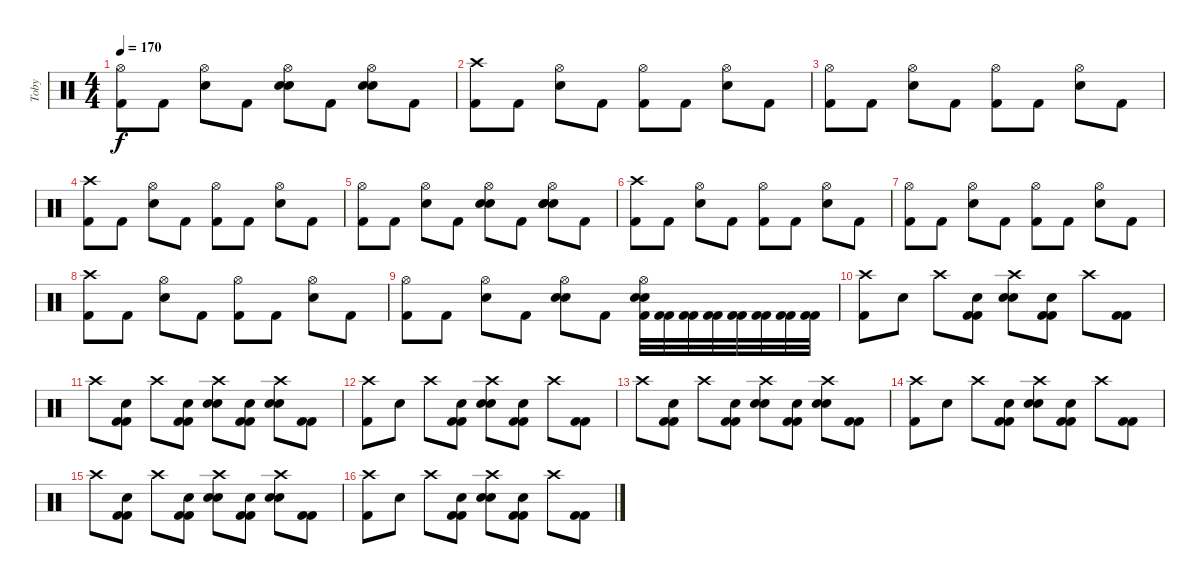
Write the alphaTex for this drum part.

\track ("Toby" "Toby") {instrument percussion}
\staff {score}
\articulation defaults
\ts (4 4)
\tempo 170
\clef neutral
\ks c
("Hi-Hat (open)" "Kick (hit) 2").8{dy f} "Kick (hit) 2".8 ("Hi-Hat (open)" "Electric Snare (hit)").8 "Kick (hit) 2".8 ("Hi-Hat (open)" "Electric Snare (hit)" "Electric Snare (hit)").8 "Kick (hit) 2".8 ("Hi-Hat (open)" "Electric Snare (hit)" "Electric Snare (hit)").8 "Kick (hit) 2".8 |
("Crash high (hit)" "Kick (hit) 2").8 "Kick (hit) 2".8 ("Hi-Hat (open)" "Electric Snare (hit)").8 "Kick (hit) 2".8 ("Hi-Hat (open)" "Kick (hit) 2").8 "Kick (hit) 2".8 ("Hi-Hat (open)" "Electric Snare (hit)").8 "Kick (hit) 2".8 |
("Hi-Hat (open)" "Kick (hit) 2").8 "Kick (hit) 2".8 ("Hi-Hat (open)" "Electric Snare (hit)").8 "Kick (hit) 2".8 ("Hi-Hat (open)" "Kick (hit) 2").8 "Kick (hit) 2".8 ("Hi-Hat (open)" "Electric Snare (hit)").8 "Kick (hit) 2".8 |
("Crash high (hit)" "Kick (hit) 2").8 "Kick (hit) 2".8 ("Hi-Hat (open)" "Electric Snare (hit)").8 "Kick (hit) 2".8 ("Hi-Hat (open)" "Kick (hit) 2").8 "Kick (hit) 2".8 ("Hi-Hat (open)" "Electric Snare (hit)").8 "Kick (hit) 2".8 |
("Hi-Hat (open)" "Kick (hit) 2").8 "Kick (hit) 2".8 ("Hi-Hat (open)" "Electric Snare (hit)").8 "Kick (hit) 2".8 ("Hi-Hat (open)" "Electric Snare (hit)" "Electric Snare (hit)").8 "Kick (hit) 2".8 ("Hi-Hat (open)" "Electric Snare (hit)" "Electric Snare (hit)" "Electric Snare (hit)").8 "Kick (hit) 2".8 |
("Crash high (hit)" "Kick (hit) 2").8 "Kick (hit) 2".8 ("Hi-Hat (open)" "Electric Snare (hit)").8 "Kick (hit) 2".8 ("Hi-Hat (open)" "Kick (hit) 2").8 "Kick (hit) 2".8 ("Hi-Hat (open)" "Electric Snare (hit)").8 "Kick (hit) 2".8 |
("Hi-Hat (open)" "Kick (hit) 2").8 "Kick (hit) 2".8 ("Hi-Hat (open)" "Electric Snare (hit)").8 "Kick (hit) 2".8 ("Hi-Hat (open)" "Kick (hit) 2").8 "Kick (hit) 2".8 ("Hi-Hat (open)" "Electric Snare (hit)").8 "Kick (hit) 2".8 |
("Crash high (hit)" "Kick (hit) 2").8 "Kick (hit) 2".8 ("Hi-Hat (open)" "Electric Snare (hit)").8 "Kick (hit) 2".8 ("Hi-Hat (open)" "Kick (hit) 2").8 "Kick (hit) 2".8 ("Hi-Hat (open)" "Electric Snare (hit)").8 "Kick (hit) 2".8 |
("Hi-Hat (open)" "Kick (hit) 2").8 "Kick (hit) 2".8 ("Hi-Hat (open)" "Electric Snare (hit)").8 "Kick (hit) 2".8 ("Hi-Hat (open)" "Electric Snare (hit)" "Electric Snare (hit)").8 "Kick (hit) 2".8 ("Hi-Hat (open)" "Electric Snare (hit)" "Electric Snare (hit)" "Kick (hit) 2").32 ("Kick (hit) 2" "Kick (hit) 2").32 ("Kick (hit) 2" "Kick (hit) 2").32 ("Kick (hit) 2" "Kick (hit) 2").32 ("Kick (hit) 2" "Kick (hit) 2").32 ("Kick (hit) 2" "Kick (hit) 2").32 ("Kick (hit) 2" "Kick (hit) 2").32 ("Kick (hit) 2" "Kick (hit) 2").32 |
("Crash high (hit)" "Kick (hit) 2").8 "Snare (hit)".8 "Crash high (hit)".8 ("Snare (hit)" "Kick (hit) 2" "Kick (hit) 2").8 ("Crash high (hit)" "Electric Snare (hit)" "Electric Snare (hit)").8 ("Snare (hit)" "Kick (hit) 2" "Kick (hit) 2").8 "Crash high (hit)".8 ("Kick (hit) 2" "Kick (hit) 2").8 |
"Crash high (hit)".8 ("Snare (hit)" "Kick (hit) 2" "Kick (hit) 2").8 "Crash high (hit)".8 ("Snare (hit)" "Kick (hit) 2" "Kick (hit) 2").8 ("Crash high (hit)" "Electric Snare (hit)" "Electric Snare (hit)").8 ("Snare (hit)" "Kick (hit) 2" "Kick (hit) 2").8 ("Crash high (hit)" "Electric Snare (hit)" "Electric Snare (hit)").8 ("Kick (hit) 2" "Kick (hit) 2").8 |
("Crash high (hit)" "Kick (hit) 2").8 "Snare (hit)".8 "Crash high (hit)".8 ("Snare (hit)" "Kick (hit) 2" "Kick (hit) 2").8 ("Crash high (hit)" "Electric Snare (hit)" "Electric Snare (hit)").8 ("Snare (hit)" "Kick (hit) 2" "Kick (hit) 2").8 "Crash high (hit)".8 ("Kick (hit) 2" "Kick (hit) 2").8 |
"Crash high (hit)".8 ("Snare (hit)" "Kick (hit) 2" "Kick (hit) 2").8 "Crash high (hit)".8 ("Snare (hit)" "Kick (hit) 2" "Kick (hit) 2").8 ("Crash high (hit)" "Electric Snare (hit)" "Electric Snare (hit)").8 ("Snare (hit)" "Kick (hit) 2" "Kick (hit) 2").8 ("Crash high (hit)" "Electric Snare (hit)" "Electric Snare (hit)").8 ("Kick (hit) 2" "Kick (hit) 2").8 |
("Crash high (hit)" "Kick (hit) 2").8 "Snare (hit)".8 "Crash high (hit)".8 ("Snare (hit)" "Kick (hit) 2" "Kick (hit) 2").8 ("Crash high (hit)" "Electric Snare (hit)" "Electric Snare (hit)").8 ("Snare (hit)" "Kick (hit) 2" "Kick (hit) 2").8 "Crash high (hit)".8 ("Kick (hit) 2" "Kick (hit) 2").8 |
"Crash high (hit)".8 ("Snare (hit)" "Kick (hit) 2" "Kick (hit) 2").8 "Crash high (hit)".8 ("Snare (hit)" "Kick (hit) 2" "Kick (hit) 2").8 ("Crash high (hit)" "Electric Snare (hit)" "Electric Snare (hit)").8 ("Snare (hit)" "Kick (hit) 2" "Kick (hit) 2").8 ("Crash high (hit)" "Electric Snare (hit)" "Electric Snare (hit)").8 ("Kick (hit) 2" "Kick (hit) 2").8 |
("Crash high (hit)" "Kick (hit) 2").8 "Snare (hit)".8 "Crash high (hit)".8 ("Snare (hit)" "Kick (hit) 2" "Kick (hit) 2").8 ("Crash high (hit)" "Electric Snare (hit)" "Electric Snare (hit)").8 ("Snare (hit)" "Kick (hit) 2" "Kick (hit) 2").8 "Crash high (hit)".8 ("Kick (hit) 2" "Kick (hit) 2").8
